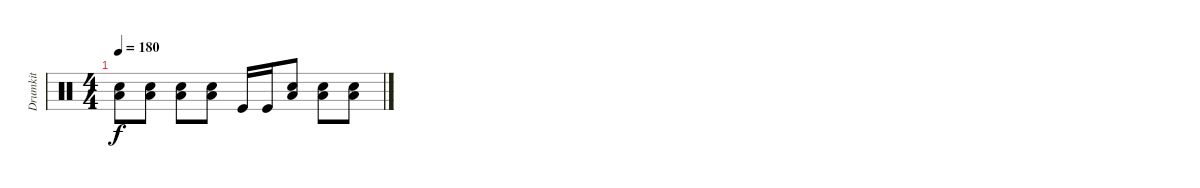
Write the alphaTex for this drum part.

\track ("Drumkit" "Drumkit") {instrument percussion}
\staff {score}
\articulation defaults
\ts (4 4)
\tempo 180
\clef neutral
\ks c
("Snare (hit) 2" "Low Floor Tom (hit)").8{dy f} ("Snare (hit) 2" "Low Floor Tom (hit)").8 ("Snare (hit) 2" "Low Floor Tom (hit)").8 ("Snare (hit) 2" "Low Floor Tom (hit)").8 "Kick (hit)".16 "Kick (hit)".16 ("Snare (hit) 2" "Low Floor Tom (hit)").8 ("Snare (hit) 2" "Low Floor Tom (hit)").8 ("Snare (hit) 2" "Low Floor Tom (hit)").8
